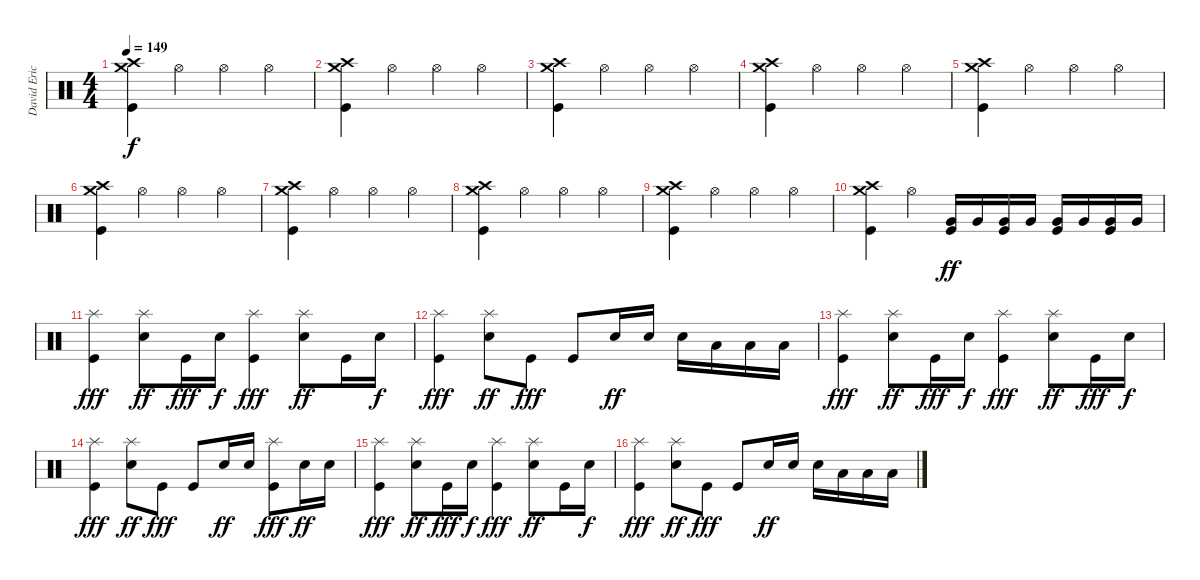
\track ("David Eric Grohl" "David Eric") {instrument percussion}
\staff {score}
\articulation defaults
\ts (4 4)
\tempo 149
\clef neutral
\ks c
("Crash medium (hit)" "Crash high (hit)" "Kick (hit)").4{dy f} "Hi-Hat (open)".4 "Hi-Hat (open)".4 "Hi-Hat (open)".4 |
("Crash medium (hit)" "Crash high (hit)" "Kick (hit)").4 "Hi-Hat (open)".4 "Hi-Hat (open)".4 "Hi-Hat (open)".4 |
("Crash medium (hit)" "Crash high (hit)" "Kick (hit)").4 "Hi-Hat (open)".4 "Hi-Hat (open)".4 "Hi-Hat (open)".4 |
("Crash medium (hit)" "Crash high (hit)" "Kick (hit)").4 "Hi-Hat (open)".4 "Hi-Hat (open)".4 "Hi-Hat (open)".4 |
("Crash medium (hit)" "Crash high (hit)" "Kick (hit)").4 "Hi-Hat (open)".4 "Hi-Hat (open)".4 "Hi-Hat (open)".4 |
("Crash medium (hit)" "Crash high (hit)" "Kick (hit)").4 "Hi-Hat (open)".4 "Hi-Hat (open)".4 "Hi-Hat (open)".4 |
("Crash medium (hit)" "Crash high (hit)" "Kick (hit)").4 "Hi-Hat (open)".4 "Hi-Hat (open)".4 "Hi-Hat (open)".4 |
("Crash medium (hit)" "Crash high (hit)" "Kick (hit)").4 "Hi-Hat (open)".4 "Hi-Hat (open)".4 "Hi-Hat (open)".4 |
("Crash medium (hit)" "Crash high (hit)" "Kick (hit)").4 "Hi-Hat (open)".4 "Hi-Hat (open)".4 "Hi-Hat (open)".4 |
("Crash medium (hit)" "Crash high (hit)" "Kick (hit)").4 "Hi-Hat (open)".4 ("Very Low Tom (hit)" "Kick (hit)").16{dy ff} "Very Low Tom (hit)".16 ("Very Low Tom (hit)" "Kick (hit)").16 "Very Low Tom (hit)".16 ("Very Low Tom (hit)" "Kick (hit)").16 "Very Low Tom (hit)".16 ("Very Low Tom (hit)" "Kick (hit)").16 "Very Low Tom (hit)".16 |
("Splash (hit)" "Kick (hit)").4{dy fff} ("Splash (hit)" "Snare (hit) 2").8{dy ff} "Kick (hit)".16{dy fff} "Snare (hit) 2".16{dy f} ("Splash (hit)" "Kick (hit)").4{dy fff} ("Splash (hit)" "Snare (hit) 2").8{dy ff} "Kick (hit)".16 "Snare (hit) 2".16{dy f} |
("Splash (hit)" "Kick (hit)").4{dy fff} ("Splash (hit)" "Snare (hit) 2").8{dy ff} "Kick (hit)".8{dy fff} "Kick (hit)".8 "Snare (hit) 2".16{dy ff} "Snare (hit) 2".16 "Snare (hit) 2".16 "Low Tom (hit)".16 "Low Tom (hit)".16 "Low Tom (hit)".16 |
("Splash (hit)" "Kick (hit)").4{dy fff} ("Splash (hit)" "Snare (hit) 2").8{dy ff} "Kick (hit)".16{dy fff} "Snare (hit) 2".16{dy f} ("Splash (hit)" "Kick (hit)").4{dy fff} ("Splash (hit)" "Snare (hit) 2").8{dy ff} "Kick (hit)".16{dy fff} "Snare (hit) 2".16{dy f} |
("Splash (hit)" "Kick (hit)").4{dy fff} ("Splash (hit)" "Snare (hit) 2").8{dy ff} "Kick (hit)".8{dy fff} "Kick (hit)".8 "Snare (hit) 2".16{dy ff} "Snare (hit) 2".16 ("Splash (hit)" "Kick (hit)").8{dy fff} "Snare (hit) 2".16{dy ff} "Snare (hit) 2".16 |
("Splash (hit)" "Kick (hit)").4{dy fff} ("Splash (hit)" "Snare (hit) 2").8{dy ff} "Kick (hit)".16{dy fff} "Snare (hit) 2".16{dy f} ("Splash (hit)" "Kick (hit)").4{dy fff} ("Splash (hit)" "Snare (hit) 2").8{dy ff} "Kick (hit)".16 "Snare (hit) 2".16{dy f} |
("Splash (hit)" "Kick (hit)").4{dy fff} ("Splash (hit)" "Snare (hit) 2").8{dy ff} "Kick (hit)".8{dy fff} "Kick (hit)".8 "Snare (hit) 2".16{dy ff} "Snare (hit) 2".16 "Snare (hit) 2".16 "Low Tom (hit)".16 "Low Tom (hit)".16 "Low Tom (hit)".16
